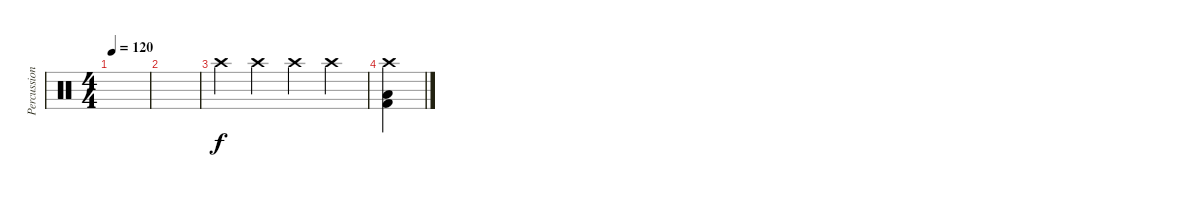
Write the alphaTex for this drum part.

\track ("Percussions" "Percussion") {instrument percussion}
\staff {score}
\articulation defaults
\ts (4 4)
\tempo 120
\clef neutral
\ks c
|
|
"Crash high (hit)".4 "Crash high (hit)".4 "Crash high (hit)".4 "Crash high (hit)".4 |
("Crash high (hit)" "Low Tom (hit)" "Kick (hit) 2").4
